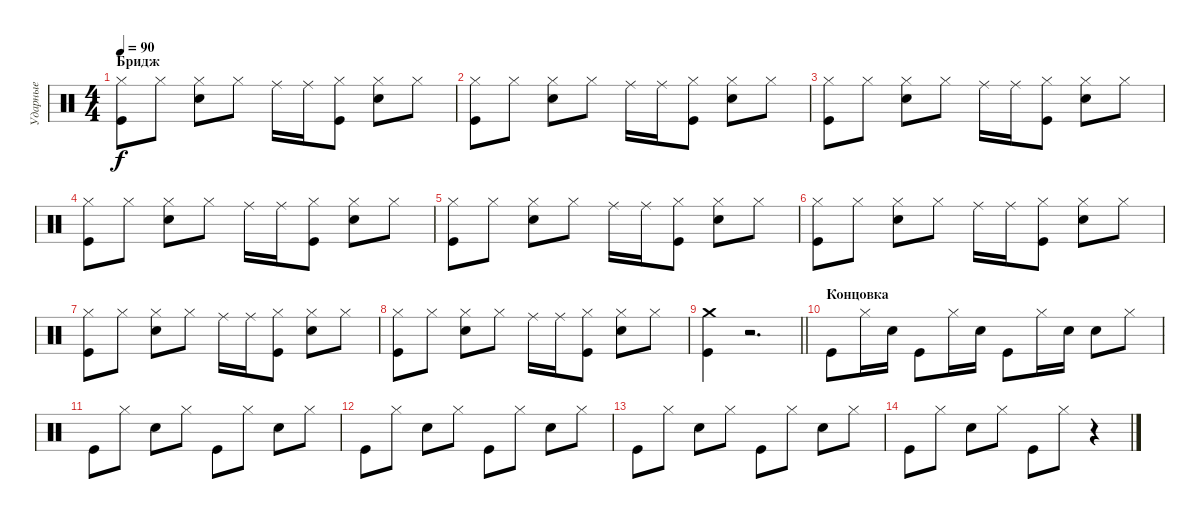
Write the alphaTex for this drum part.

\track ("Ударные" "Ударные") {instrument percussion}
\staff {score}
\articulation defaults
\ts (4 4)
\section ("" "Бридж")
\tempo 90
\clef neutral
\ks c
("Hi-Hat (closed)" "Kick (hit)").8{dy f} "Hi-Hat (closed)".8 ("Hi-Hat (closed)" "Electric Snare (hit)").8 "Hi-Hat (closed)".8 "Ride (middle)".16 "Ride (middle)".16 ("Hi-Hat (closed)" "Kick (hit)").8 ("Hi-Hat (closed)" "Electric Snare (hit)").8 "Hi-Hat (closed)".8 |
("Hi-Hat (closed)" "Kick (hit)").8 "Hi-Hat (closed)".8 ("Hi-Hat (closed)" "Electric Snare (hit)").8 "Hi-Hat (closed)".8 "Ride (middle)".16 "Ride (middle)".16 ("Hi-Hat (closed)" "Kick (hit)").8 ("Hi-Hat (closed)" "Electric Snare (hit)").8 "Hi-Hat (closed)".8 |
("Hi-Hat (closed)" "Kick (hit)").8 "Hi-Hat (closed)".8 ("Hi-Hat (closed)" "Electric Snare (hit)").8 "Hi-Hat (closed)".8 "Ride (middle)".16 "Ride (middle)".16 ("Hi-Hat (closed)" "Kick (hit)").8 ("Hi-Hat (closed)" "Electric Snare (hit)").8 "Hi-Hat (closed)".8 |
("Hi-Hat (closed)" "Kick (hit)").8 "Hi-Hat (closed)".8 ("Hi-Hat (closed)" "Electric Snare (hit)").8 "Hi-Hat (closed)".8 "Ride (middle)".16 "Ride (middle)".16 ("Hi-Hat (closed)" "Kick (hit)").8 ("Hi-Hat (closed)" "Electric Snare (hit)").8 "Hi-Hat (closed)".8 |
("Hi-Hat (closed)" "Kick (hit)").8 "Hi-Hat (closed)".8 ("Hi-Hat (closed)" "Electric Snare (hit)").8 "Hi-Hat (closed)".8 "Ride (middle)".16 "Ride (middle)".16 ("Hi-Hat (closed)" "Kick (hit)").8 ("Hi-Hat (closed)" "Electric Snare (hit)").8 "Hi-Hat (closed)".8 |
("Hi-Hat (closed)" "Kick (hit)").8 "Hi-Hat (closed)".8 ("Hi-Hat (closed)" "Electric Snare (hit)").8 "Hi-Hat (closed)".8 "Ride (middle)".16 "Ride (middle)".16 ("Hi-Hat (closed)" "Kick (hit)").8 ("Hi-Hat (closed)" "Electric Snare (hit)").8 "Hi-Hat (closed)".8 |
("Hi-Hat (closed)" "Kick (hit)").8 "Hi-Hat (closed)".8 ("Hi-Hat (closed)" "Electric Snare (hit)").8 "Hi-Hat (closed)".8 "Ride (middle)".16 "Ride (middle)".16 ("Hi-Hat (closed)" "Kick (hit)").8 ("Hi-Hat (closed)" "Electric Snare (hit)").8 "Hi-Hat (closed)".8 |
("Hi-Hat (closed)" "Kick (hit)").8 "Hi-Hat (closed)".8 ("Hi-Hat (closed)" "Electric Snare (hit)").8 "Hi-Hat (closed)".8 "Ride (middle)".16 "Ride (middle)".16 ("Hi-Hat (closed)" "Kick (hit)").8 ("Hi-Hat (closed)" "Electric Snare (hit)").8 "Hi-Hat (closed)".8 |
\barLineRight lightlight
("Crash medium (hit)" "Kick (hit)").4 r.2{d} |
\section ("" "Концовка")
"Kick (hit)".8 "Hi-Hat (closed)".16 "Electric Snare (hit)".16 "Kick (hit)".8 "Hi-Hat (closed)".16 "Electric Snare (hit)".16 "Kick (hit)".8 "Hi-Hat (closed)".16 "Electric Snare (hit)".16 "Electric Snare (hit)".8 "Hi-Hat (closed)".8 |
"Kick (hit)".8 "Hi-Hat (closed)".8 "Electric Snare (hit)".8 "Hi-Hat (closed)".8 "Kick (hit)".8 "Hi-Hat (closed)".8 "Electric Snare (hit)".8 "Hi-Hat (closed)".8 |
"Kick (hit)".8 "Hi-Hat (closed)".8 "Electric Snare (hit)".8 "Hi-Hat (closed)".8 "Kick (hit)".8 "Hi-Hat (closed)".8 "Electric Snare (hit)".8 "Hi-Hat (closed)".8 |
"Kick (hit)".8 "Hi-Hat (closed)".8 "Electric Snare (hit)".8 "Hi-Hat (closed)".8 "Kick (hit)".8 "Hi-Hat (closed)".8 "Electric Snare (hit)".8 "Hi-Hat (closed)".8 |
"Kick (hit)".8 "Hi-Hat (closed)".8 "Electric Snare (hit)".8 "Hi-Hat (closed)".8 "Kick (hit)".8 "Hi-Hat (closed)".8 r.4
